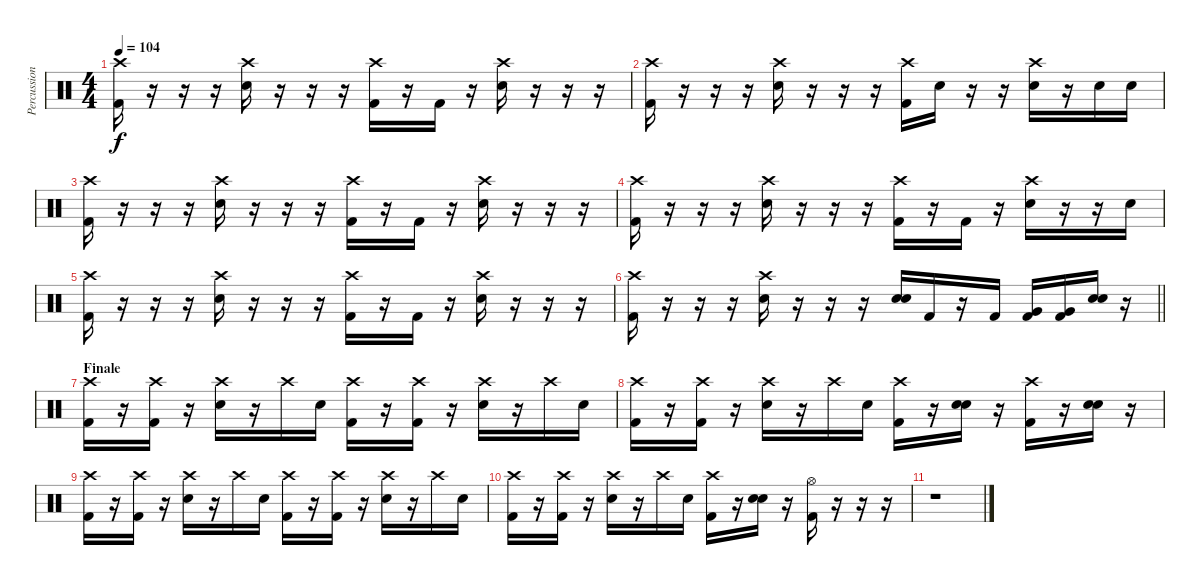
\track ("Percussion" "Percussion") {instrument percussion}
\staff {score}
\articulation defaults
\ts (4 4)
\tempo 104
\clef neutral
\ks c
("Crash high (hit)" "Kick (hit) 2").16{dy f} r.16 r.16 r.16 ("Electric Snare (hit)" "Crash high (hit)").16 r.16 r.16 r.16 ("Crash high (hit)" "Kick (hit) 2").16 r.16 "Kick (hit) 2".16 r.16 ("Electric Snare (hit)" "Crash high (hit)").16 r.16 r.16 r.16 |
("Crash high (hit)" "Kick (hit) 2").16 r.16 r.16 r.16 ("Electric Snare (hit)" "Crash high (hit)").16 r.16 r.16 r.16 ("Crash high (hit)" "Kick (hit) 2").16 "Electric Snare (hit)".16 r.16 r.16 ("Electric Snare (hit)" "Crash high (hit)").16 r.16 "Electric Snare (hit)".16 "Electric Snare (hit)".16 |
("Crash high (hit)" "Kick (hit) 2").16 r.16 r.16 r.16 ("Electric Snare (hit)" "Crash high (hit)").16 r.16 r.16 r.16 ("Crash high (hit)" "Kick (hit) 2").16 r.16 "Kick (hit) 2".16 r.16 ("Electric Snare (hit)" "Crash high (hit)").16 r.16 r.16 r.16 |
("Crash high (hit)" "Kick (hit) 2").16 r.16 r.16 r.16 ("Electric Snare (hit)" "Crash high (hit)").16 r.16 r.16 r.16 ("Crash high (hit)" "Kick (hit) 2").16 r.16 "Kick (hit) 2".16 r.16 ("Electric Snare (hit)" "Crash high (hit)").16 r.16 r.16 "Electric Snare (hit)".16 |
("Crash high (hit)" "Kick (hit) 2").16 r.16 r.16 r.16 ("Electric Snare (hit)" "Crash high (hit)").16 r.16 r.16 r.16 ("Crash high (hit)" "Kick (hit) 2").16 r.16 "Kick (hit) 2".16 r.16 ("Electric Snare (hit)" "Crash high (hit)").16 r.16 r.16 r.16 |
\barLineRight lightlight
("Crash high (hit)" "Kick (hit) 2").16 r.16 r.16 r.16 ("Electric Snare (hit)" "Crash high (hit)").16 r.16 r.16 r.16 ("Electric Snare (hit)" "Electric Snare (hit)").16 "Kick (hit) 2".16 r.16 "Kick (hit) 2".16 ("Very Low Tom (hit)" "Kick (hit) 2").16 ("Very Low Tom (hit)" "Kick (hit) 2").16 ("Electric Snare (hit)" "Electric Snare (hit)").16 r.16 |
\section ("" "Finale")
("Crash high (hit)" "Kick (hit) 2").16 r.16 ("Crash high (hit)" "Kick (hit) 2").16 r.16 ("Electric Snare (hit)" "Crash high (hit)").16 r.16 "Crash high (hit)".16 "Electric Snare (hit)".16 ("Crash high (hit)" "Kick (hit) 2").16 r.16 ("Crash high (hit)" "Kick (hit) 2").16 r.16 ("Electric Snare (hit)" "Crash high (hit)").16 r.16 "Crash high (hit)".16 "Electric Snare (hit)".16 |
("Crash high (hit)" "Kick (hit) 2").16 r.16 ("Crash high (hit)" "Kick (hit) 2").16 r.16 ("Electric Snare (hit)" "Crash high (hit)").16 r.16 "Crash high (hit)".16 "Electric Snare (hit)".16 ("Crash high (hit)" "Kick (hit) 2").16 r.16 ("Electric Snare (hit)" "Electric Snare (hit)").16 r.16 ("Crash high (hit)" "Kick (hit) 2").16 r.16 ("Electric Snare (hit)" "Electric Snare (hit)").16 r.16 |
("Crash high (hit)" "Kick (hit) 2").16 r.16 ("Crash high (hit)" "Kick (hit) 2").16 r.16 ("Electric Snare (hit)" "Crash high (hit)").16 r.16 "Crash high (hit)".16 "Electric Snare (hit)".16 ("Crash high (hit)" "Kick (hit) 2").16 r.16 ("Crash high (hit)" "Kick (hit) 2").16 r.16 ("Electric Snare (hit)" "Crash high (hit)").16 r.16 "Crash high (hit)".16 "Electric Snare (hit)".16 |
("Crash high (hit)" "Kick (hit) 2").16 r.16 ("Crash high (hit)" "Kick (hit) 2").16 r.16 ("Electric Snare (hit)" "Crash high (hit)").16 r.16 "Crash high (hit)".16 "Electric Snare (hit)".16 ("Crash high (hit)" "Kick (hit) 2").16 r.16 ("Electric Snare (hit)" "Electric Snare (hit)").16 r.16 ("Hi-Hat (open)" "Kick (hit) 2").16 r.16 r.16 r.16 |
r.1
